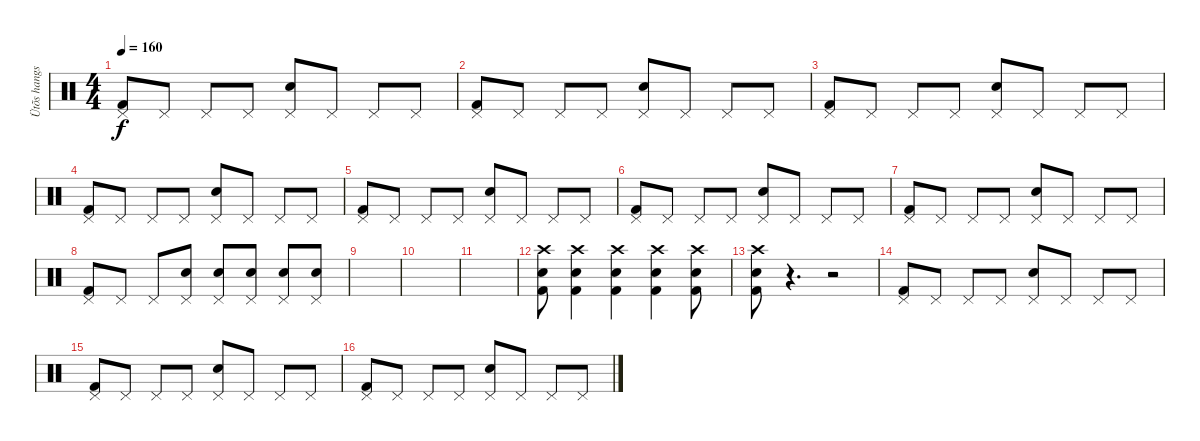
\track ("Ütõs hangszer" "Ütõs hangs") {instrument percussion}
\staff {score}
\articulation defaults
\ts (4 4)
\tempo 160
\clef neutral
\ks c
("Pedal Hi-Hat (hit)" "Kick (hit) 2").8{dy f} "Pedal Hi-Hat (hit)".8 "Pedal Hi-Hat (hit)".8 "Pedal Hi-Hat (hit)".8 ("Pedal Hi-Hat (hit)" "Snare (hit) 2").8 "Pedal Hi-Hat (hit)".8 "Pedal Hi-Hat (hit)".8 "Pedal Hi-Hat (hit)".8 |
("Pedal Hi-Hat (hit)" "Kick (hit) 2").8 "Pedal Hi-Hat (hit)".8 "Pedal Hi-Hat (hit)".8 "Pedal Hi-Hat (hit)".8 ("Pedal Hi-Hat (hit)" "Snare (hit) 2").8 "Pedal Hi-Hat (hit)".8 "Pedal Hi-Hat (hit)".8 "Pedal Hi-Hat (hit)".8 |
("Pedal Hi-Hat (hit)" "Kick (hit) 2").8 "Pedal Hi-Hat (hit)".8 "Pedal Hi-Hat (hit)".8 "Pedal Hi-Hat (hit)".8 ("Pedal Hi-Hat (hit)" "Snare (hit) 2").8 "Pedal Hi-Hat (hit)".8 "Pedal Hi-Hat (hit)".8 "Pedal Hi-Hat (hit)".8 |
("Pedal Hi-Hat (hit)" "Kick (hit) 2").8 "Pedal Hi-Hat (hit)".8 "Pedal Hi-Hat (hit)".8 "Pedal Hi-Hat (hit)".8 ("Pedal Hi-Hat (hit)" "Snare (hit) 2").8 "Pedal Hi-Hat (hit)".8 "Pedal Hi-Hat (hit)".8 "Pedal Hi-Hat (hit)".8 |
("Pedal Hi-Hat (hit)" "Kick (hit) 2").8 "Pedal Hi-Hat (hit)".8 "Pedal Hi-Hat (hit)".8 "Pedal Hi-Hat (hit)".8 ("Pedal Hi-Hat (hit)" "Snare (hit) 2").8 "Pedal Hi-Hat (hit)".8 "Pedal Hi-Hat (hit)".8 "Pedal Hi-Hat (hit)".8 |
("Pedal Hi-Hat (hit)" "Kick (hit) 2").8 "Pedal Hi-Hat (hit)".8 "Pedal Hi-Hat (hit)".8 "Pedal Hi-Hat (hit)".8 ("Pedal Hi-Hat (hit)" "Snare (hit) 2").8 "Pedal Hi-Hat (hit)".8 "Pedal Hi-Hat (hit)".8 "Pedal Hi-Hat (hit)".8 |
("Pedal Hi-Hat (hit)" "Kick (hit) 2").8 "Pedal Hi-Hat (hit)".8 "Pedal Hi-Hat (hit)".8 "Pedal Hi-Hat (hit)".8 ("Pedal Hi-Hat (hit)" "Snare (hit) 2").8 "Pedal Hi-Hat (hit)".8 "Pedal Hi-Hat (hit)".8 "Pedal Hi-Hat (hit)".8 |
("Pedal Hi-Hat (hit)" "Kick (hit) 2").8 "Pedal Hi-Hat (hit)".8 "Pedal Hi-Hat (hit)".8 ("Pedal Hi-Hat (hit)" "Snare (hit) 2").8 ("Pedal Hi-Hat (hit)" "Snare (hit) 2").8 ("Pedal Hi-Hat (hit)" "Snare (hit) 2").8 ("Pedal Hi-Hat (hit)" "Snare (hit) 2").8 ("Pedal Hi-Hat (hit)" "Snare (hit) 2").8 |
|
|
|
("Crash high (hit)" "Kick (hit) 2" "Snare (hit) 2").8 ("Crash high (hit)" "Kick (hit) 2" "Snare (hit) 2").4 ("Crash high (hit)" "Kick (hit) 2" "Snare (hit) 2").4 ("Crash high (hit)" "Kick (hit) 2" "Snare (hit) 2").4 ("Crash high (hit)" "Kick (hit) 2" "Snare (hit) 2").8 |
("Crash high (hit)" "Kick (hit) 2" "Snare (hit) 2").8 r.4{d} r.2 |
("Pedal Hi-Hat (hit)" "Kick (hit) 2").8 "Pedal Hi-Hat (hit)".8 "Pedal Hi-Hat (hit)".8 "Pedal Hi-Hat (hit)".8 ("Pedal Hi-Hat (hit)" "Snare (hit) 2").8 "Pedal Hi-Hat (hit)".8 "Pedal Hi-Hat (hit)".8 "Pedal Hi-Hat (hit)".8 |
("Pedal Hi-Hat (hit)" "Kick (hit) 2").8 "Pedal Hi-Hat (hit)".8 "Pedal Hi-Hat (hit)".8 "Pedal Hi-Hat (hit)".8 ("Pedal Hi-Hat (hit)" "Snare (hit) 2").8 "Pedal Hi-Hat (hit)".8 "Pedal Hi-Hat (hit)".8 "Pedal Hi-Hat (hit)".8 |
("Pedal Hi-Hat (hit)" "Kick (hit) 2").8 "Pedal Hi-Hat (hit)".8 "Pedal Hi-Hat (hit)".8 "Pedal Hi-Hat (hit)".8 ("Pedal Hi-Hat (hit)" "Snare (hit) 2").8 "Pedal Hi-Hat (hit)".8 "Pedal Hi-Hat (hit)".8 "Pedal Hi-Hat (hit)".8
